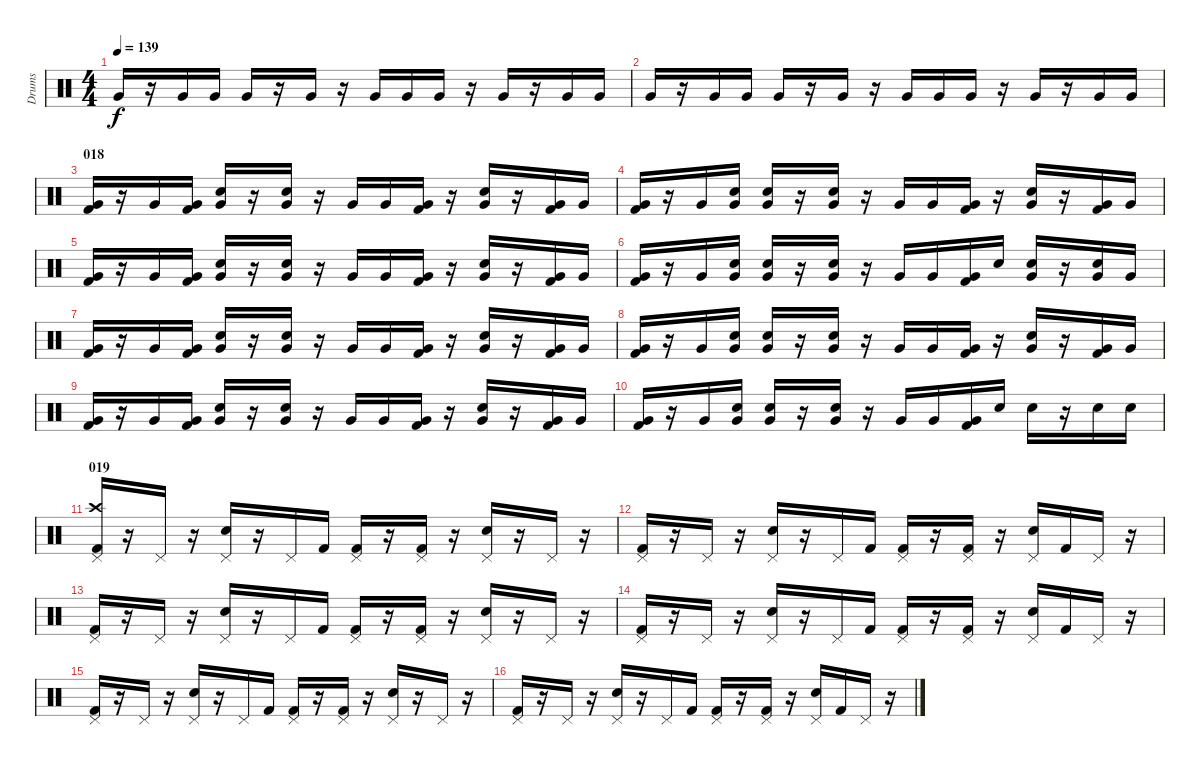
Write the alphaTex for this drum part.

\track ("Drums" "Drums") {instrument percussion}
\staff {score}
\articulation defaults
\ts (4 4)
\tempo 139
\clef neutral
\ks c "Very Low Tom (hit)".16{dy f}
r.16 "Very Low Tom (hit)".16 "Very Low Tom (hit)".16 "Very Low Tom (hit)".16 r.16 "Very Low Tom (hit)".16 r.16 "Very Low Tom (hit)".16 "Very Low Tom (hit)".16 "Very Low Tom (hit)".16 r.16 "Very Low Tom (hit)".16 r.16 "Very Low Tom (hit)".16 "Very Low Tom (hit)".16 |
"Very Low Tom (hit)".16 r.16 "Very Low Tom (hit)".16 "Very Low Tom (hit)".16 "Very Low Tom (hit)".16 r.16 "Very Low Tom (hit)".16 r.16 "Very Low Tom (hit)".16 "Very Low Tom (hit)".16 "Very Low Tom (hit)".16 r.16 "Very Low Tom (hit)".16 r.16 "Very Low Tom (hit)".16 "Very Low Tom (hit)".16 |
\section ("" "018")
("Kick (hit) 2" "Very Low Tom (hit)").16 r.16 "Very Low Tom (hit)".16 ("Kick (hit) 2" "Very Low Tom (hit)").16 ("Electric Snare (hit)" "Very Low Tom (hit)").16 r.16 ("Electric Snare (hit)" "Very Low Tom (hit)").16 r.16 "Very Low Tom (hit)".16 "Very Low Tom (hit)".16 ("Kick (hit) 2" "Very Low Tom (hit)").16 r.16 ("Electric Snare (hit)" "Very Low Tom (hit)").16 r.16 ("Kick (hit) 2" "Very Low Tom (hit)").16 "Very Low Tom (hit)".16 |
("Kick (hit) 2" "Very Low Tom (hit)").16 r.16 "Very Low Tom (hit)".16 ("Electric Snare (hit)" "Very Low Tom (hit)").16 ("Electric Snare (hit)" "Very Low Tom (hit)").16 r.16 ("Electric Snare (hit)" "Very Low Tom (hit)").16 r.16 "Very Low Tom (hit)".16 "Very Low Tom (hit)".16 ("Kick (hit) 2" "Very Low Tom (hit)").16 r.16 ("Electric Snare (hit)" "Very Low Tom (hit)").16 r.16 ("Kick (hit) 2" "Very Low Tom (hit)").16 "Very Low Tom (hit)".16 |
("Kick (hit) 2" "Very Low Tom (hit)").16 r.16 "Very Low Tom (hit)".16 ("Kick (hit) 2" "Very Low Tom (hit)").16 ("Electric Snare (hit)" "Very Low Tom (hit)").16 r.16 ("Electric Snare (hit)" "Very Low Tom (hit)").16 r.16 "Very Low Tom (hit)".16 "Very Low Tom (hit)".16 ("Kick (hit) 2" "Very Low Tom (hit)").16 r.16 ("Electric Snare (hit)" "Very Low Tom (hit)").16 r.16 ("Kick (hit) 2" "Very Low Tom (hit)").16 "Very Low Tom (hit)".16 |
("Kick (hit) 2" "Very Low Tom (hit)").16 r.16 "Very Low Tom (hit)".16 ("Electric Snare (hit)" "Very Low Tom (hit)").16 ("Electric Snare (hit)" "Very Low Tom (hit)").16 r.16 ("Electric Snare (hit)" "Very Low Tom (hit)").16 r.16 "Very Low Tom (hit)".16 "Very Low Tom (hit)".16 ("Kick (hit) 2" "Very Low Tom (hit)").16 "Electric Snare (hit)".16 ("Electric Snare (hit)" "Very Low Tom (hit)").16 r.16 ("Electric Snare (hit)" "Very Low Tom (hit)").16 "Very Low Tom (hit)".16 |
("Kick (hit) 2" "Very Low Tom (hit)").16 r.16 "Very Low Tom (hit)".16 ("Kick (hit) 2" "Very Low Tom (hit)").16 ("Electric Snare (hit)" "Very Low Tom (hit)").16 r.16 ("Electric Snare (hit)" "Very Low Tom (hit)").16 r.16 "Very Low Tom (hit)".16 "Very Low Tom (hit)".16 ("Kick (hit) 2" "Very Low Tom (hit)").16 r.16 ("Electric Snare (hit)" "Very Low Tom (hit)").16 r.16 ("Kick (hit) 2" "Very Low Tom (hit)").16 "Very Low Tom (hit)".16 |
("Kick (hit) 2" "Very Low Tom (hit)").16 r.16 "Very Low Tom (hit)".16 ("Electric Snare (hit)" "Very Low Tom (hit)").16 ("Electric Snare (hit)" "Very Low Tom (hit)").16 r.16 ("Electric Snare (hit)" "Very Low Tom (hit)").16 r.16 "Very Low Tom (hit)".16 "Very Low Tom (hit)".16 ("Kick (hit) 2" "Very Low Tom (hit)").16 r.16 ("Electric Snare (hit)" "Very Low Tom (hit)").16 r.16 ("Kick (hit) 2" "Very Low Tom (hit)").16 "Very Low Tom (hit)".16 |
("Kick (hit) 2" "Very Low Tom (hit)").16 r.16 "Very Low Tom (hit)".16 ("Kick (hit) 2" "Very Low Tom (hit)").16 ("Electric Snare (hit)" "Very Low Tom (hit)").16 r.16 ("Electric Snare (hit)" "Very Low Tom (hit)").16 r.16 "Very Low Tom (hit)".16 "Very Low Tom (hit)".16 ("Kick (hit) 2" "Very Low Tom (hit)").16 r.16 ("Electric Snare (hit)" "Very Low Tom (hit)").16 r.16 ("Kick (hit) 2" "Very Low Tom (hit)").16 "Very Low Tom (hit)".16 |
("Kick (hit) 2" "Very Low Tom (hit)").16 r.16 "Very Low Tom (hit)".16 ("Electric Snare (hit)" "Very Low Tom (hit)").16 ("Electric Snare (hit)" "Very Low Tom (hit)").16 r.16 ("Electric Snare (hit)" "Very Low Tom (hit)").16 r.16 "Very Low Tom (hit)".16 "Very Low Tom (hit)".16 ("Kick (hit) 2" "Very Low Tom (hit)").16 "Electric Snare (hit)".16 "Electric Snare (hit)".16 r.16 "Electric Snare (hit)".16 "Electric Snare (hit)".16 |
\section ("" "019")
("Kick (hit) 2" "Crash high (hit)" "Pedal Hi-Hat (hit)").16 r.16 "Pedal Hi-Hat (hit)".16 r.16 ("Electric Snare (hit)" "Pedal Hi-Hat (hit)").16 r.16 "Pedal Hi-Hat (hit)".16 "Kick (hit) 2".16 ("Kick (hit) 2" "Pedal Hi-Hat (hit)").16 r.16 ("Kick (hit) 2" "Pedal Hi-Hat (hit)").16 r.16 ("Electric Snare (hit)" "Pedal Hi-Hat (hit)").16 r.16 "Pedal Hi-Hat (hit)".16 r.16 |
("Kick (hit) 2" "Pedal Hi-Hat (hit)").16 r.16 "Pedal Hi-Hat (hit)".16 r.16 ("Electric Snare (hit)" "Pedal Hi-Hat (hit)").16 r.16 "Pedal Hi-Hat (hit)".16 "Kick (hit) 2".16 ("Kick (hit) 2" "Pedal Hi-Hat (hit)").16 r.16 ("Kick (hit) 2" "Pedal Hi-Hat (hit)").16 r.16 ("Electric Snare (hit)" "Pedal Hi-Hat (hit)").16 "Kick (hit) 2".16 "Pedal Hi-Hat (hit)".16 r.16 |
("Kick (hit) 2" "Pedal Hi-Hat (hit)").16 r.16 "Pedal Hi-Hat (hit)".16 r.16 ("Electric Snare (hit)" "Pedal Hi-Hat (hit)").16 r.16 "Pedal Hi-Hat (hit)".16 "Kick (hit) 2".16 ("Kick (hit) 2" "Pedal Hi-Hat (hit)").16 r.16 ("Kick (hit) 2" "Pedal Hi-Hat (hit)").16 r.16 ("Electric Snare (hit)" "Pedal Hi-Hat (hit)").16 r.16 "Pedal Hi-Hat (hit)".16 r.16 |
("Kick (hit) 2" "Pedal Hi-Hat (hit)").16 r.16 "Pedal Hi-Hat (hit)".16 r.16 ("Electric Snare (hit)" "Pedal Hi-Hat (hit)").16 r.16 "Pedal Hi-Hat (hit)".16 "Kick (hit) 2".16 ("Kick (hit) 2" "Pedal Hi-Hat (hit)").16 r.16 ("Kick (hit) 2" "Pedal Hi-Hat (hit)").16 r.16 ("Electric Snare (hit)" "Pedal Hi-Hat (hit)").16 "Kick (hit) 2".16 "Pedal Hi-Hat (hit)".16 r.16 |
("Kick (hit) 2" "Pedal Hi-Hat (hit)").16 r.16 "Pedal Hi-Hat (hit)".16 r.16 ("Electric Snare (hit)" "Pedal Hi-Hat (hit)").16 r.16 "Pedal Hi-Hat (hit)".16 "Kick (hit) 2".16 ("Kick (hit) 2" "Pedal Hi-Hat (hit)").16 r.16 ("Kick (hit) 2" "Pedal Hi-Hat (hit)").16 r.16 ("Electric Snare (hit)" "Pedal Hi-Hat (hit)").16 r.16 "Pedal Hi-Hat (hit)".16 r.16 |
("Kick (hit) 2" "Pedal Hi-Hat (hit)").16 r.16 "Pedal Hi-Hat (hit)".16 r.16 ("Electric Snare (hit)" "Pedal Hi-Hat (hit)").16 r.16 "Pedal Hi-Hat (hit)".16 "Kick (hit) 2".16 ("Kick (hit) 2" "Pedal Hi-Hat (hit)").16 r.16 ("Kick (hit) 2" "Pedal Hi-Hat (hit)").16 r.16 ("Electric Snare (hit)" "Pedal Hi-Hat (hit)").16 "Kick (hit) 2".16 "Pedal Hi-Hat (hit)".16 r.16
